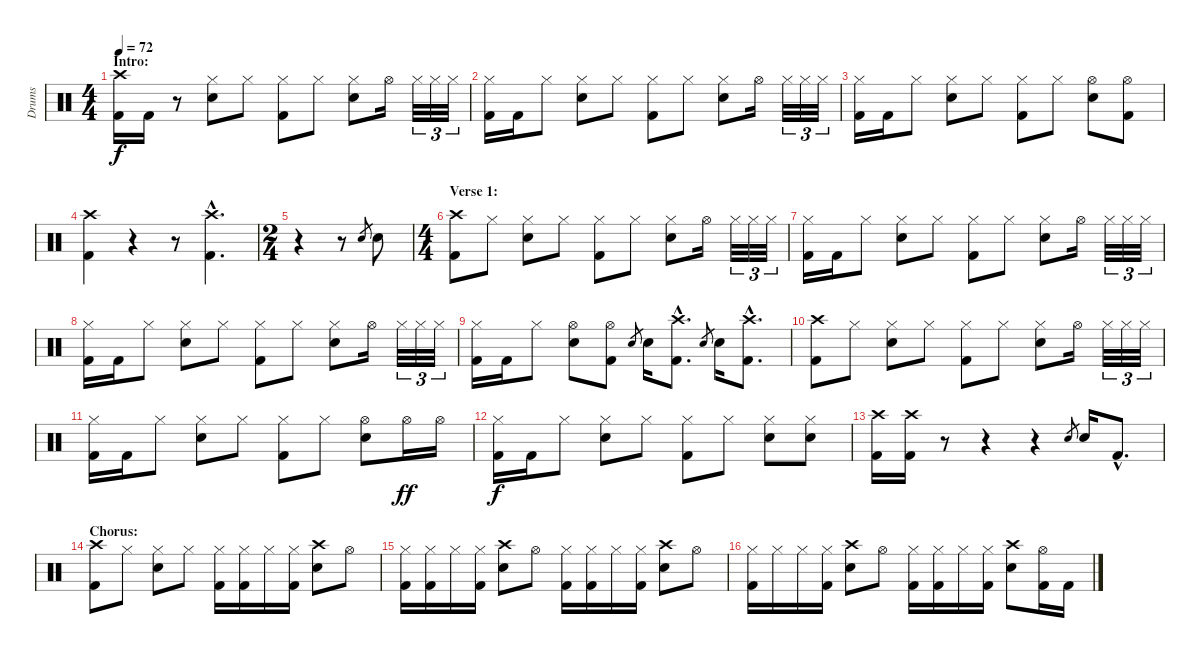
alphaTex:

\track ("Drums" "Drums") {instrument percussion}
\staff {score}
\articulation defaults
\ts (4 4)
\section ("" "Intro:")
\tempo 72
\clef neutral
\ks c
("Crash high (hit)" "Kick (hit) 2").16{dy f} "Kick (hit) 2".16 r.8 ("Hi-Hat (closed)" "Electric Snare (hit)").8 "Hi-Hat (closed)".8 ("Hi-Hat (closed)" "Kick (hit) 2").8 "Hi-Hat (closed)".8 ("Hi-Hat (closed)" "Electric Snare (hit)").8 "Hi-Hat (open)".16 "Hi-Hat (closed)".32{tu (3 2)} "Hi-Hat (closed)".32{tu (3 2)} "Hi-Hat (closed)".32{tu (3 2)} |
("Hi-Hat (closed)" "Kick (hit) 2").16 "Kick (hit) 2".16 "Hi-Hat (closed)".8 ("Hi-Hat (closed)" "Electric Snare (hit)").8 "Hi-Hat (closed)".8 ("Hi-Hat (closed)" "Kick (hit) 2").8 "Hi-Hat (closed)".8 ("Hi-Hat (closed)" "Electric Snare (hit)").8 "Hi-Hat (open)".16 "Hi-Hat (closed)".32{tu (3 2)} "Hi-Hat (closed)".32{tu (3 2)} "Hi-Hat (closed)".32{tu (3 2)} |
("Hi-Hat (closed)" "Kick (hit) 2").16 "Kick (hit) 2".16 "Hi-Hat (closed)".8 ("Hi-Hat (closed)" "Electric Snare (hit)").8 "Hi-Hat (closed)".8 ("Hi-Hat (closed)" "Kick (hit) 2").8 "Hi-Hat (closed)".8 ("Hi-Hat (open)" "Electric Snare (hit)").8 ("Hi-Hat (open)" "Kick (hit) 2").8 |
("Crash high (hit)" "Kick (hit) 2").4 r.4 r.8 ("Crash high (hit)"{hac} "Kick (hit) 2"{hac}).4{d} |
\ts (2 4)
r.4 r.8 "Electric Snare (hit)".8{gr} "Electric Snare (hit)".8 |
\ts (4 4)
\section ("" "Verse 1:")
("Crash high (hit)" "Kick (hit) 2").8 "Hi-Hat (closed)".8 ("Hi-Hat (closed)" "Electric Snare (hit)").8 "Hi-Hat (closed)".8 ("Hi-Hat (closed)" "Kick (hit) 2").8 "Hi-Hat (closed)".8 ("Hi-Hat (closed)" "Electric Snare (hit)").8 "Hi-Hat (open)".16 "Hi-Hat (closed)".32{tu (3 2)} "Hi-Hat (closed)".32{tu (3 2)} "Hi-Hat (closed)".32{tu (3 2)} |
("Hi-Hat (closed)" "Kick (hit) 2").16 "Kick (hit) 2".16 "Hi-Hat (closed)".8 ("Hi-Hat (closed)" "Electric Snare (hit)").8 "Hi-Hat (closed)".8 ("Hi-Hat (closed)" "Kick (hit) 2").8 "Hi-Hat (closed)".8 ("Hi-Hat (closed)" "Electric Snare (hit)").8 "Hi-Hat (open)".16 "Hi-Hat (closed)".32{tu (3 2)} "Hi-Hat (closed)".32{tu (3 2)} "Hi-Hat (closed)".32{tu (3 2)} |
("Hi-Hat (closed)" "Kick (hit) 2").16 "Kick (hit) 2".16 "Hi-Hat (closed)".8 ("Hi-Hat (closed)" "Electric Snare (hit)").8 "Hi-Hat (closed)".8 ("Hi-Hat (closed)" "Kick (hit) 2").8 "Hi-Hat (closed)".8 ("Hi-Hat (closed)" "Electric Snare (hit)").8 "Hi-Hat (open)".16 "Hi-Hat (closed)".32{tu (3 2)} "Hi-Hat (closed)".32{tu (3 2)} "Hi-Hat (closed)".32{tu (3 2)} |
("Hi-Hat (closed)" "Kick (hit) 2").16 "Kick (hit) 2".16 "Hi-Hat (closed)".8 ("Hi-Hat (open)" "Electric Snare (hit)").8 ("Hi-Hat (open)" "Kick (hit) 2").8 "Electric Snare (hit)".8{gr} "Electric Snare (hit)".16 ("Crash high (hit)"{hac} "Kick (hit) 2"{hac}).8{d} "Electric Snare (hit)".8{gr} "Electric Snare (hit)".16 ("Crash high (hit)"{hac} "Kick (hit) 2"{hac}).8{d} |
("Crash high (hit)" "Kick (hit) 2").8 "Hi-Hat (closed)".8 ("Hi-Hat (closed)" "Electric Snare (hit)").8 "Hi-Hat (closed)".8 ("Hi-Hat (closed)" "Kick (hit) 2").8 "Hi-Hat (closed)".8 ("Hi-Hat (closed)" "Electric Snare (hit)").8 "Hi-Hat (open)".16 "Hi-Hat (closed)".32{tu (3 2)} "Hi-Hat (closed)".32{tu (3 2)} "Hi-Hat (closed)".32{tu (3 2)} |
("Hi-Hat (closed)" "Kick (hit) 2").16 "Kick (hit) 2".16 "Hi-Hat (closed)".8 ("Hi-Hat (closed)" "Electric Snare (hit)").8 "Hi-Hat (closed)".8 ("Hi-Hat (closed)" "Kick (hit) 2").8 "Hi-Hat (closed)".8 ("Hi-Hat (open)" "Electric Snare (hit)").8 "Hi-Hat (open)".16{dy ff} "Hi-Hat (open)".16 |
("Hi-Hat (closed)" "Kick (hit) 2").16{dy f} "Kick (hit) 2".16 "Hi-Hat (closed)".8 ("Hi-Hat (closed)" "Electric Snare (hit)").8 "Hi-Hat (closed)".8 ("Hi-Hat (closed)" "Kick (hit) 2").8 "Hi-Hat (closed)".8 ("Hi-Hat (closed)" "Electric Snare (hit)").8 ("Hi-Hat (closed)" "Electric Snare (hit)").8 |
("Crash high (hit)" "Kick (hit) 2").16 ("Crash high (hit)" "Kick (hit) 2").16 r.8 r.4 r.4 "Electric Snare (hit)".8{gr} "Electric Snare (hit)".16 "Kick (hit) 2"{hac}.8{d} |
\section ("" "Chorus:")
("Crash high (hit)" "Kick (hit) 2").8 "Hi-Hat (closed)".8 ("Hi-Hat (closed)" "Electric Snare (hit)").8 "Hi-Hat (closed)".8 ("Hi-Hat (closed)" "Kick (hit) 2").16 ("Hi-Hat (closed)" "Kick (hit) 2").16 "Hi-Hat (closed)".16 ("Hi-Hat (closed)" "Kick (hit) 2").16 ("Crash high (hit)" "Electric Snare (hit)").8 "Hi-Hat (open)".8 |
("Hi-Hat (closed)" "Kick (hit) 2").16 ("Hi-Hat (closed)" "Kick (hit) 2").16 "Hi-Hat (closed)".16 ("Hi-Hat (closed)" "Kick (hit) 2").16 ("Crash high (hit)" "Electric Snare (hit)").8 "Hi-Hat (open)".8 ("Hi-Hat (closed)" "Kick (hit) 2").16 ("Hi-Hat (closed)" "Kick (hit) 2").16 "Hi-Hat (closed)".16 ("Hi-Hat (closed)" "Kick (hit) 2").16 ("Crash high (hit)" "Electric Snare (hit)").8 "Hi-Hat (open)".8 |
("Hi-Hat (closed)" "Kick (hit) 2").16 "Hi-Hat (closed)".16 "Hi-Hat (closed)".16 ("Hi-Hat (closed)" "Kick (hit) 2").16 ("Crash high (hit)" "Electric Snare (hit)").8 "Hi-Hat (open)".8 ("Hi-Hat (closed)" "Kick (hit) 2").16 ("Hi-Hat (closed)" "Kick (hit) 2").16 "Hi-Hat (closed)".16 ("Hi-Hat (closed)" "Kick (hit) 2").16 ("Crash high (hit)" "Electric Snare (hit)").8 ("Hi-Hat (open)" "Kick (hit) 2").16 "Kick (hit) 2".16
